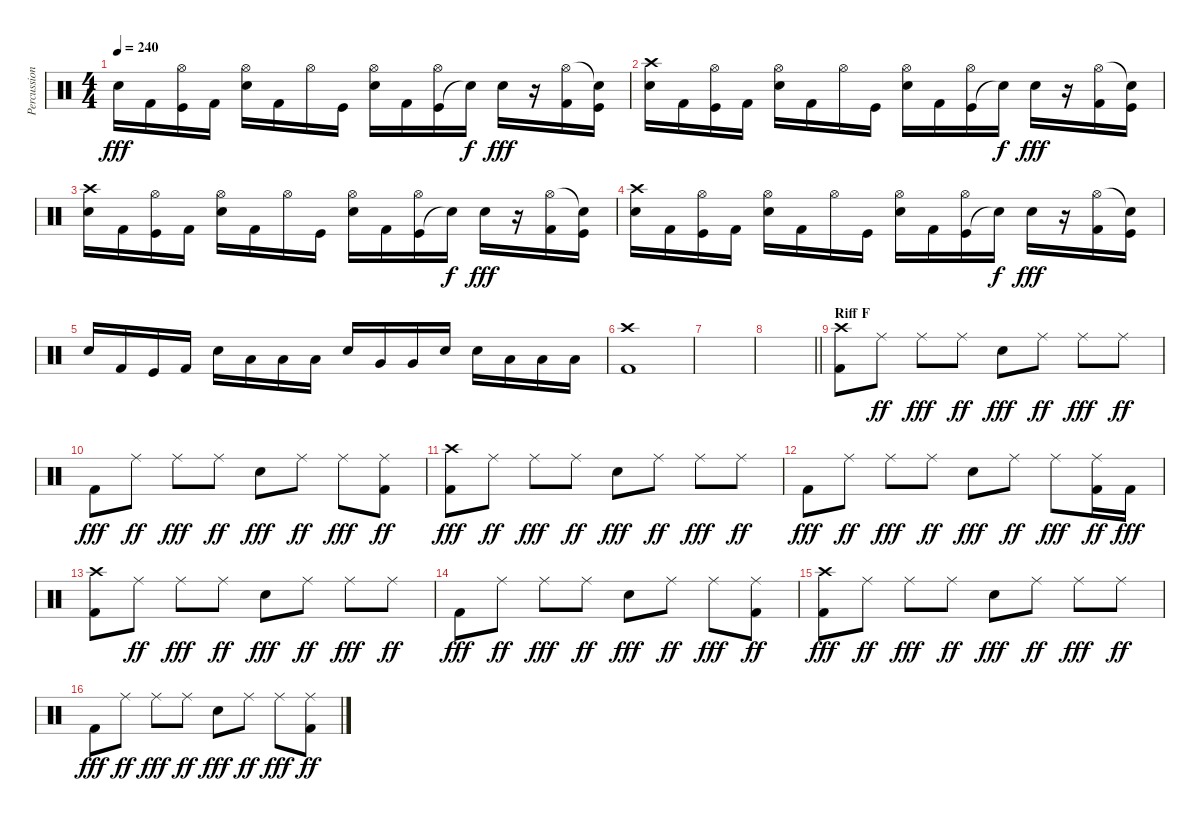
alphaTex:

\track ("Percussion" "Percussion") {instrument percussion}
\staff {score}
\articulation defaults
\ts (4 4)
\tempo 240
\clef neutral
\ks c "Snare (hit) 2".16{dy fff} "Kick (hit) 2".16
("Kick (hit)" "Hi-Hat (open)").16 "Kick (hit) 2".16 ("Snare (hit) 2" "Hi-Hat (open)").16 "Kick (hit) 2".16 "Hi-Hat (open)".16 "Kick (hit)".16 ("Snare (hit) 2" "Hi-Hat (open)").16 "Kick (hit) 2".16 ("Kick (hit)" "Hi-Hat (open)").16 "Snare (hit)"{t}.16{dy f} "Snare (hit) 2".16{dy fff} r.16 ("Kick (hit) 2" "Hi-Hat (open)").16 ("Kick (hit)" "Snare (hit)"{t}).16 |
("Snare (hit) 2" "Crash high (hit)").16 "Kick (hit) 2".16 ("Kick (hit)" "Hi-Hat (open)").16 "Kick (hit) 2".16 ("Snare (hit) 2" "Hi-Hat (open)").16 "Kick (hit) 2".16 "Hi-Hat (open)".16 "Kick (hit)".16 ("Snare (hit) 2" "Hi-Hat (open)").16 "Kick (hit) 2".16 ("Kick (hit)" "Hi-Hat (open)").16 "Snare (hit)"{t}.16{dy f} "Snare (hit) 2".16{dy fff} r.16 ("Kick (hit) 2" "Hi-Hat (open)").16 ("Kick (hit)" "Snare (hit)"{t}).16 |
("Snare (hit) 2" "Crash high (hit)").16 "Kick (hit) 2".16 ("Kick (hit)" "Hi-Hat (open)").16 "Kick (hit) 2".16 ("Snare (hit) 2" "Hi-Hat (open)").16 "Kick (hit) 2".16 "Hi-Hat (open)".16 "Kick (hit)".16 ("Snare (hit) 2" "Hi-Hat (open)").16 "Kick (hit) 2".16 ("Kick (hit)" "Hi-Hat (open)").16 "Snare (hit)"{t}.16{dy f} "Snare (hit) 2".16{dy fff} r.16 ("Kick (hit) 2" "Hi-Hat (open)").16 ("Kick (hit)" "Snare (hit)"{t}).16 |
("Snare (hit) 2" "Crash high (hit)").16 "Kick (hit) 2".16 ("Kick (hit)" "Hi-Hat (open)").16 "Kick (hit) 2".16 ("Snare (hit) 2" "Hi-Hat (open)").16 "Kick (hit) 2".16 "Hi-Hat (open)".16 "Kick (hit)".16 ("Snare (hit) 2" "Hi-Hat (open)").16 "Kick (hit) 2".16 ("Kick (hit)" "Hi-Hat (open)").16 "Snare (hit)"{t}.16{dy f} "Snare (hit) 2".16{dy fff} r.16 ("Kick (hit) 2" "Hi-Hat (open)").16 ("Kick (hit)" "Snare (hit)"{t}).16 |
"Snare (hit) 2".16 "Kick (hit) 2".16 "Kick (hit)".16 "Kick (hit) 2".16 "Snare (hit) 2".16 "Low Floor Tom (hit)".16 "Low Floor Tom (hit)".16 "Low Floor Tom (hit)".16 "Snare (hit) 2".16 "Very Low Tom (hit)".16 "Very Low Tom (hit)".16 "Snare (hit) 2".16 "Snare (hit) 2".16 "Low Tom (hit)".16 "Low Tom (hit)".16 "Low Tom (hit)".16 |
("Kick (hit) 2" "Crash high (hit)").1 |
|
\barLineRight lightlight
|
\section ("" "Riff F")
("Kick (hit) 2" "Crash high (hit)").8 "Ride (middle)".8{dy ff} "Ride (middle)".8{dy fff} "Ride (middle)".8{dy ff} "Snare (hit) 2".8{dy fff} "Ride (middle)".8{dy ff} "Ride (middle)".8{dy fff} "Ride (middle)".8{dy ff} |
"Kick (hit) 2".8{dy fff} "Ride (middle)".8{dy ff} "Ride (middle)".8{dy fff} "Ride (middle)".8{dy ff} "Snare (hit) 2".8{dy fff} "Ride (middle)".8{dy ff} "Ride (middle)".8{dy fff} ("Kick (hit) 2" "Ride (middle)").8{dy ff} |
("Kick (hit) 2" "Crash high (hit)").8{dy fff} "Ride (middle)".8{dy ff} "Ride (middle)".8{dy fff} "Ride (middle)".8{dy ff} "Snare (hit) 2".8{dy fff} "Ride (middle)".8{dy ff} "Ride (middle)".8{dy fff} "Ride (middle)".8{dy ff} |
"Kick (hit) 2".8{dy fff} "Ride (middle)".8{dy ff} "Ride (middle)".8{dy fff} "Ride (middle)".8{dy ff} "Snare (hit) 2".8{dy fff} "Ride (middle)".8{dy ff} "Ride (middle)".8{dy fff} ("Kick (hit) 2" "Ride (middle)").16{dy ff} "Kick (hit) 2".16{dy fff} |
("Kick (hit) 2" "Crash high (hit)").8 "Ride (middle)".8{dy ff} "Ride (middle)".8{dy fff} "Ride (middle)".8{dy ff} "Snare (hit) 2".8{dy fff} "Ride (middle)".8{dy ff} "Ride (middle)".8{dy fff} "Ride (middle)".8{dy ff} |
"Kick (hit) 2".8{dy fff} "Ride (middle)".8{dy ff} "Ride (middle)".8{dy fff} "Ride (middle)".8{dy ff} "Snare (hit) 2".8{dy fff} "Ride (middle)".8{dy ff} "Ride (middle)".8{dy fff} ("Kick (hit) 2" "Ride (middle)").8{dy ff} |
("Kick (hit) 2" "Crash high (hit)").8{dy fff} "Ride (middle)".8{dy ff} "Ride (middle)".8{dy fff} "Ride (middle)".8{dy ff} "Snare (hit) 2".8{dy fff} "Ride (middle)".8{dy ff} "Ride (middle)".8{dy fff} "Ride (middle)".8{dy ff} |
"Kick (hit) 2".8{dy fff} "Ride (middle)".8{dy ff} "Ride (middle)".8{dy fff} "Ride (middle)".8{dy ff} "Snare (hit) 2".8{dy fff} "Ride (middle)".8{dy ff} "Ride (middle)".8{dy fff} ("Kick (hit) 2" "Ride (middle)").8{dy ff}
